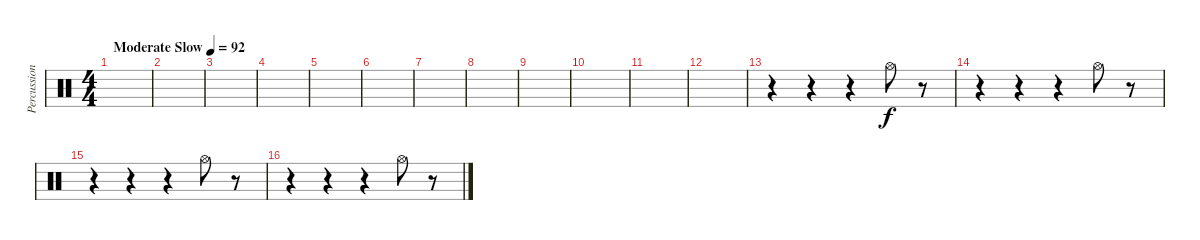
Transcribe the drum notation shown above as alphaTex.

\track ("Percussion" "Percussion") {instrument percussion}
\staff {score}
\articulation defaults
\ts (4 4)
\tempo (92 "Moderate Slow")
\clef neutral
\ks c
|
|
|
|
|
|
|
|
|
|
|
|
r.4 r.4 r.4 "Hi-Hat (open)".8 r.8 |
r.4 r.4 r.4 "Hi-Hat (open)".8 r.8 |
r.4 r.4 r.4 "Hi-Hat (open)".8 r.8 |
r.4 r.4 r.4 "Hi-Hat (open)".8 r.8
